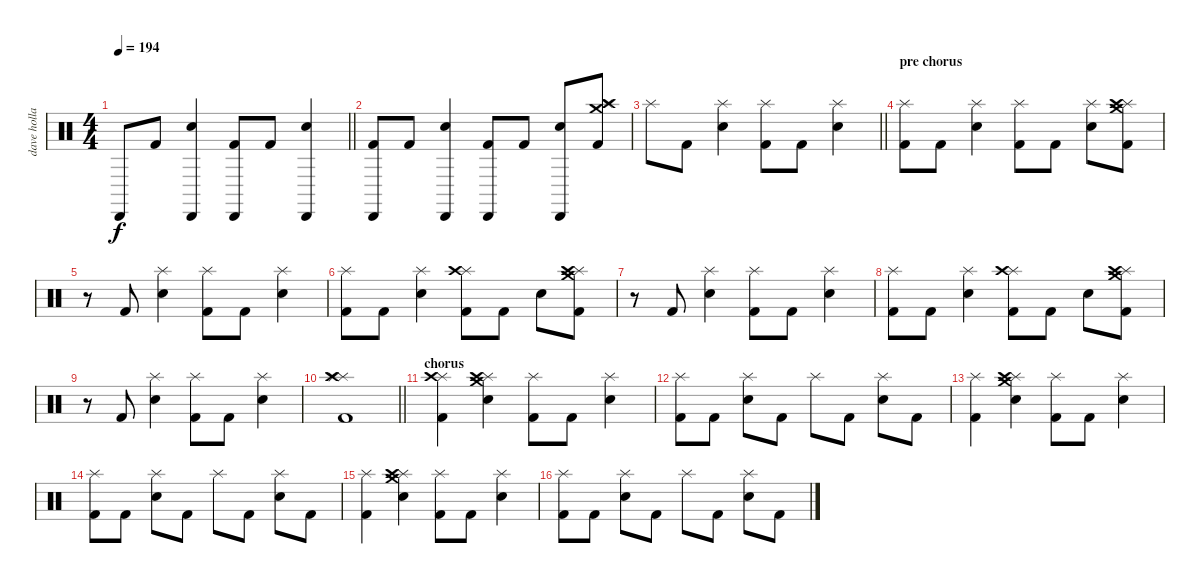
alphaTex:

\track ("dave holland" "dave holla") {instrument percussion}
\staff {score}
\articulation defaults
\ts (4 4)
\tempo 194
\clef neutral
\barLineRight lightlight
\ks c "Cabasa (hit)".8{dy f} "Kick (hit) 2".8
("Cabasa (hit)" "Electric Snare (hit)").4 ("Cabasa (hit)" "Kick (hit) 2").8 "Kick (hit) 2".8 ("Cabasa (hit)" "Electric Snare (hit)").4 |
("Cabasa (hit)" "Kick (hit) 2").8 "Kick (hit) 2".8 ("Cabasa (hit)" "Electric Snare (hit)").4 ("Cabasa (hit)" "Kick (hit) 2").8 "Kick (hit) 2".8 ("Cabasa (hit)" "Electric Snare (hit)").8 ("Crash medium (hit)" "Splash (hit)" "Crash high (hit)" "Kick (hit) 2").8 |
\barLineRight lightlight "Splash (hit)".8 "Kick (hit) 2".8
("Splash (hit)" "Electric Snare (hit)").4 ("Splash (hit)" "Kick (hit) 2").8 "Kick (hit) 2".8 ("Splash (hit)" "Electric Snare (hit)").4 |
\section ("" "pre chorus")
("Splash (hit)" "Kick (hit) 2").8 "Kick (hit) 2".8 ("Splash (hit)" "Electric Snare (hit)").4 ("Splash (hit)" "Kick (hit) 2").8 "Kick (hit) 2".8 ("Splash (hit)" "Electric Snare (hit)").8 ("Crash medium (hit)" "Splash (hit)" "Crash high (hit)" "Kick (hit) 2").8 |
r.8 "Kick (hit) 2".8 ("Splash (hit)" "Electric Snare (hit)").4 ("Splash (hit)" "Kick (hit) 2").8 "Kick (hit) 2".8 ("Splash (hit)" "Electric Snare (hit)").4 |
("Splash (hit)" "Kick (hit) 2").8 "Kick (hit) 2".8 ("Splash (hit)" "Electric Snare (hit)").4 ("Splash (hit)" "Crash high (hit)" "Kick (hit) 2").8 "Kick (hit) 2".8 "Electric Snare (hit)".8 ("Crash medium (hit)" "Splash (hit)" "Crash high (hit)" "Kick (hit) 2").8 |
r.8 "Kick (hit) 2".8 ("Splash (hit)" "Electric Snare (hit)").4 ("Splash (hit)" "Kick (hit) 2").8 "Kick (hit) 2".8 ("Splash (hit)" "Electric Snare (hit)").4 |
("Splash (hit)" "Kick (hit) 2").8 "Kick (hit) 2".8 ("Splash (hit)" "Electric Snare (hit)").4 ("Splash (hit)" "Crash high (hit)" "Kick (hit) 2").8 "Kick (hit) 2".8 "Electric Snare (hit)".8 ("Crash medium (hit)" "Splash (hit)" "Crash high (hit)" "Kick (hit) 2").8 |
r.8 "Kick (hit) 2".8 ("Splash (hit)" "Electric Snare (hit)").4 ("Splash (hit)" "Kick (hit) 2").8 "Kick (hit) 2".8 ("Splash (hit)" "Electric Snare (hit)").4 |
\barLineRight lightlight
("Splash (hit)" "Splash (hit)" "Crash high (hit)" "Kick (hit) 2").1 |
\section ("" "chorus")
("Splash (hit)" "Crash high (hit)" "Kick (hit) 2").4 ("Crash medium (hit)" "Splash (hit)" "Crash high (hit)" "Electric Snare (hit)").4 ("Splash (hit)" "Kick (hit) 2").8 "Kick (hit) 2".8 ("Splash (hit)" "Electric Snare (hit)").4 |
("Splash (hit)" "Kick (hit) 2").8 "Kick (hit) 2".8 ("Splash (hit)" "Electric Snare (hit)").8 "Kick (hit) 2".8 "Splash (hit)".8 "Kick (hit) 2".8 ("Splash (hit)" "Electric Snare (hit)").8 "Kick (hit) 2".8 |
("Splash (hit)" "Kick (hit) 2").4 ("Crash medium (hit)" "Splash (hit)" "Crash high (hit)" "Electric Snare (hit)").4 ("Splash (hit)" "Kick (hit) 2").8 "Kick (hit) 2".8 ("Splash (hit)" "Electric Snare (hit)").4 |
("Splash (hit)" "Kick (hit) 2").8 "Kick (hit) 2".8 ("Splash (hit)" "Electric Snare (hit)").8 "Kick (hit) 2".8 "Splash (hit)".8 "Kick (hit) 2".8 ("Splash (hit)" "Electric Snare (hit)").8 "Kick (hit) 2".8 |
("Splash (hit)" "Kick (hit) 2").4 ("Crash medium (hit)" "Splash (hit)" "Crash high (hit)" "Electric Snare (hit)").4 ("Splash (hit)" "Kick (hit) 2").8 "Kick (hit) 2".8 ("Splash (hit)" "Electric Snare (hit)").4 |
("Splash (hit)" "Kick (hit) 2").8 "Kick (hit) 2".8 ("Splash (hit)" "Electric Snare (hit)").8 "Kick (hit) 2".8 "Splash (hit)".8 "Kick (hit) 2".8 ("Splash (hit)" "Electric Snare (hit)").8 "Kick (hit) 2".8
